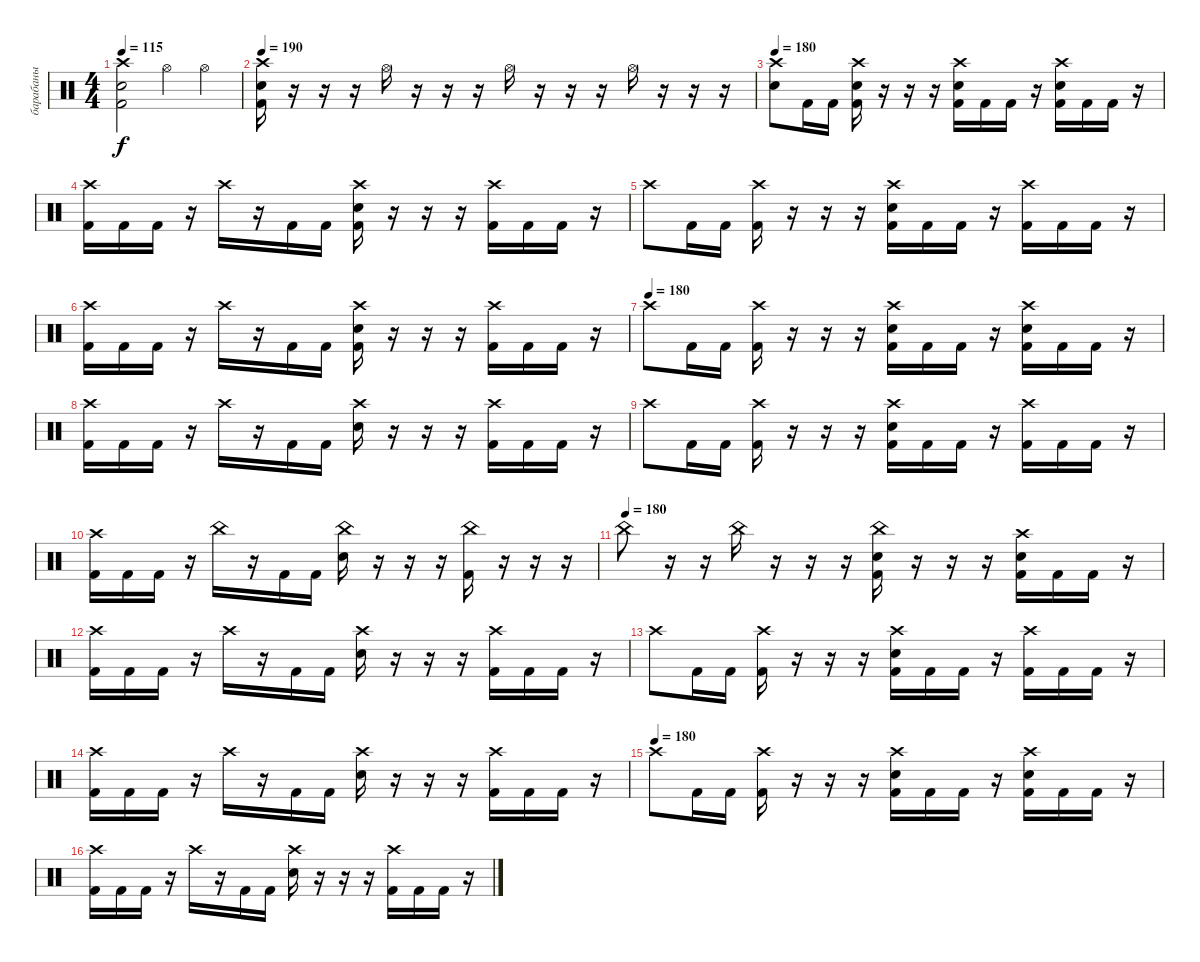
\track ("барабаны" "барабаны") {instrument percussion}
\staff {score}
\articulation defaults
\ts (4 4)
\tempo 115
\clef neutral
\ks c
("Crash high (hit)" "Snare (hit) 2" "Kick (hit) 2").2{dy f} "Hi-Hat (open)".4 "Hi-Hat (open)".4 |
\tempo 190
("Crash high (hit)" "Kick (hit) 2" "Snare (hit) 2").16 r.16 r.16 r.16 "Hi-Hat (open)".16 r.16 r.16 r.16 "Hi-Hat (open)".16 r.16 r.16 r.16 "Hi-Hat (open)".16 r.16 r.16 r.16 |
\tempo 180
("Crash high (hit)" "Snare (hit) 2").8 "Kick (hit) 2".16 "Kick (hit) 2".16 ("Crash high (hit)" "Snare (hit) 2" "Kick (hit) 2").16 r.16 r.16 r.16 ("Crash high (hit)" "Snare (hit) 2" "Kick (hit) 2").16 "Kick (hit) 2".16 "Kick (hit) 2".16 r.16 ("Crash high (hit)" "Snare (hit) 2" "Kick (hit) 2").16 "Kick (hit) 2".16 "Kick (hit) 2".16 r.16 |
("Crash high (hit)" "Kick (hit) 2").16 "Kick (hit) 2".16 "Kick (hit) 2".16 r.16 "Crash high (hit)".16 r.16 "Kick (hit) 2".16 "Kick (hit) 2".16 ("Crash high (hit)" "Snare (hit) 2" "Kick (hit) 2").16 r.16 r.16 r.16 ("Crash high (hit)" "Kick (hit) 2").16 "Kick (hit) 2".16 "Kick (hit) 2".16 r.16 |
"Crash high (hit)".8 "Kick (hit) 2".16 "Kick (hit) 2".16 ("Crash high (hit)" "Kick (hit) 2").16 r.16 r.16 r.16 ("Crash high (hit)" "Snare (hit) 2" "Kick (hit) 2").16 "Kick (hit) 2".16 "Kick (hit) 2".16 r.16 ("Crash high (hit)" "Kick (hit) 2").16 "Kick (hit) 2".16 "Kick (hit) 2".16 r.16 |
("Crash high (hit)" "Kick (hit) 2").16 "Kick (hit) 2".16 "Kick (hit) 2".16 r.16 "Crash high (hit)".16 r.16 "Kick (hit) 2".16 "Kick (hit) 2".16 ("Crash high (hit)" "Snare (hit) 2" "Kick (hit) 2").16 r.16 r.16 r.16 ("Crash high (hit)" "Kick (hit) 2").16 "Kick (hit) 2".16 "Kick (hit) 2".16 r.16 |
\tempo (180)
"Crash high (hit)".8 "Kick (hit) 2".16 "Kick (hit) 2".16 ("Crash high (hit)" "Kick (hit) 2").16 r.16 r.16 r.16 ("Crash high (hit)" "Snare (hit) 2" "Kick (hit) 2").16 "Kick (hit) 2".16 "Kick (hit) 2".16 r.16 ("Crash high (hit)" "Snare (hit) 2" "Kick (hit) 2").16 "Kick (hit) 2".16 "Kick (hit) 2".16 r.16 |
("Crash high (hit)" "Kick (hit) 2").16 "Kick (hit) 2".16 "Kick (hit) 2".16 r.16 "Crash high (hit)".16 r.16 "Kick (hit) 2".16 "Kick (hit) 2".16 ("Crash high (hit)" "Snare (hit) 2").16 r.16 r.16 r.16 ("Crash high (hit)" "Kick (hit) 2").16 "Kick (hit) 2".16 "Kick (hit) 2".16 r.16 |
"Crash high (hit)".8 "Kick (hit) 2".16 "Kick (hit) 2".16 ("Crash high (hit)" "Kick (hit) 2").16 r.16 r.16 r.16 ("Crash high (hit)" "Snare (hit) 2" "Kick (hit) 2").16 "Kick (hit) 2".16 "Kick (hit) 2".16 r.16 ("Crash high (hit)" "Kick (hit) 2").16 "Kick (hit) 2".16 "Kick (hit) 2".16 r.16 |
("Crash high (hit)" "Kick (hit) 2").16 "Kick (hit) 2".16 "Kick (hit) 2".16 r.16 "China (hit)".16 r.16 "Kick (hit) 2".16 "Kick (hit) 2".16 ("China (hit)" "Snare (hit) 2").16 r.16 r.16 r.16 ("China (hit)" "Kick (hit) 2").16 r.16 r.16 r.16 |
\tempo (180)
"China (hit)".8 r.16 r.16 "China (hit)".16 r.16 r.16 r.16 ("China (hit)" "Snare (hit) 2" "Kick (hit) 2").16 r.16 r.16 r.16 ("Crash high (hit)" "Snare (hit) 2" "Kick (hit) 2").16 "Kick (hit) 2".16 "Kick (hit) 2".16 r.16 |
("Crash high (hit)" "Kick (hit) 2").16 "Kick (hit) 2".16 "Kick (hit) 2".16 r.16 "Crash high (hit)".16 r.16 "Kick (hit) 2".16 "Kick (hit) 2".16 ("Crash high (hit)" "Snare (hit) 2").16 r.16 r.16 r.16 ("Crash high (hit)" "Kick (hit) 2").16 "Kick (hit) 2".16 "Kick (hit) 2".16 r.16 |
"Crash high (hit)".8 "Kick (hit) 2".16 "Kick (hit) 2".16 ("Crash high (hit)" "Kick (hit) 2").16 r.16 r.16 r.16 ("Crash high (hit)" "Snare (hit) 2" "Kick (hit) 2").16 "Kick (hit) 2".16 "Kick (hit) 2".16 r.16 ("Crash high (hit)" "Kick (hit) 2").16 "Kick (hit) 2".16 "Kick (hit) 2".16 r.16 |
("Crash high (hit)" "Kick (hit) 2").16 "Kick (hit) 2".16 "Kick (hit) 2".16 r.16 "Crash high (hit)".16 r.16 "Kick (hit) 2".16 "Kick (hit) 2".16 ("Crash high (hit)" "Snare (hit) 2").16 r.16 r.16 r.16 ("Crash high (hit)" "Kick (hit) 2").16 "Kick (hit) 2".16 "Kick (hit) 2".16 r.16 |
\tempo (180)
"Crash high (hit)".8 "Kick (hit) 2".16 "Kick (hit) 2".16 ("Crash high (hit)" "Kick (hit) 2").16 r.16 r.16 r.16 ("Crash high (hit)" "Snare (hit) 2" "Kick (hit) 2").16 "Kick (hit) 2".16 "Kick (hit) 2".16 r.16 ("Crash high (hit)" "Snare (hit) 2" "Kick (hit) 2").16 "Kick (hit) 2".16 "Kick (hit) 2".16 r.16 |
("Crash high (hit)" "Kick (hit) 2").16 "Kick (hit) 2".16 "Kick (hit) 2".16 r.16 "Crash high (hit)".16 r.16 "Kick (hit) 2".16 "Kick (hit) 2".16 ("Crash high (hit)" "Snare (hit) 2").16 r.16 r.16 r.16 ("Crash high (hit)" "Kick (hit) 2").16 "Kick (hit) 2".16 "Kick (hit) 2".16 r.16
